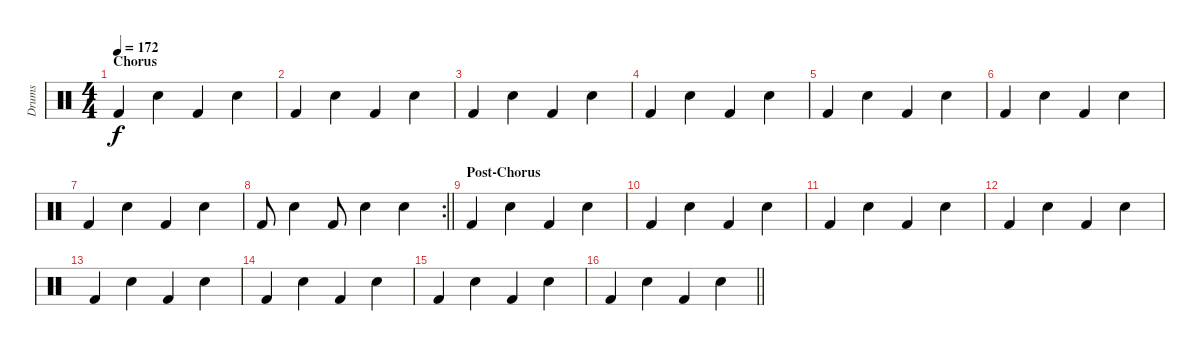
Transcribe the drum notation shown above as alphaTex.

\track ("Drums" "Drums") {instrument percussion}
\staff {score}
\articulation defaults
\ts (4 4)
\section ("" "Chorus")
\tempo 172
\clef neutral
\ks c "Kick (hit) 2".4{dy f} "Snare (hit) 2".4 "Kick (hit) 2".4 "Snare (hit) 2".4
|
"Kick (hit) 2".4 "Snare (hit) 2".4 "Kick (hit) 2".4 "Snare (hit) 2".4 |
"Kick (hit) 2".4 "Snare (hit) 2".4 "Kick (hit) 2".4 "Snare (hit) 2".4 |
"Kick (hit) 2".4 "Snare (hit) 2".4 "Kick (hit) 2".4 "Snare (hit) 2".4 |
"Kick (hit) 2".4 "Snare (hit) 2".4 "Kick (hit) 2".4 "Snare (hit) 2".4 |
"Kick (hit) 2".4 "Snare (hit) 2".4 "Kick (hit) 2".4 "Snare (hit) 2".4 |
"Kick (hit) 2".4 "Snare (hit) 2".4 "Kick (hit) 2".4 "Snare (hit) 2".4 |
\rc 2
\barLineRight lightlight "Kick (hit) 2".8 "Snare (hit) 2".4 "Kick (hit) 2".8 "Snare (hit) 2".4 "Snare (hit) 2".4
|
\section ("" "Post-Chorus")
"Kick (hit) 2".4 "Snare (hit) 2".4 "Kick (hit) 2".4 "Snare (hit) 2".4 |
"Kick (hit) 2".4 "Snare (hit) 2".4 "Kick (hit) 2".4 "Snare (hit) 2".4 |
"Kick (hit) 2".4 "Snare (hit) 2".4 "Kick (hit) 2".4 "Snare (hit) 2".4 |
"Kick (hit) 2".4 "Snare (hit) 2".4 "Kick (hit) 2".4 "Snare (hit) 2".4 |
"Kick (hit) 2".4 "Snare (hit) 2".4 "Kick (hit) 2".4 "Snare (hit) 2".4 |
"Kick (hit) 2".4 "Snare (hit) 2".4 "Kick (hit) 2".4 "Snare (hit) 2".4 |
"Kick (hit) 2".4 "Snare (hit) 2".4 "Kick (hit) 2".4 "Snare (hit) 2".4 |
\barLineRight lightlight "Kick (hit) 2".4 "Snare (hit) 2".4 "Kick (hit) 2".4 "Snare (hit) 2".4
